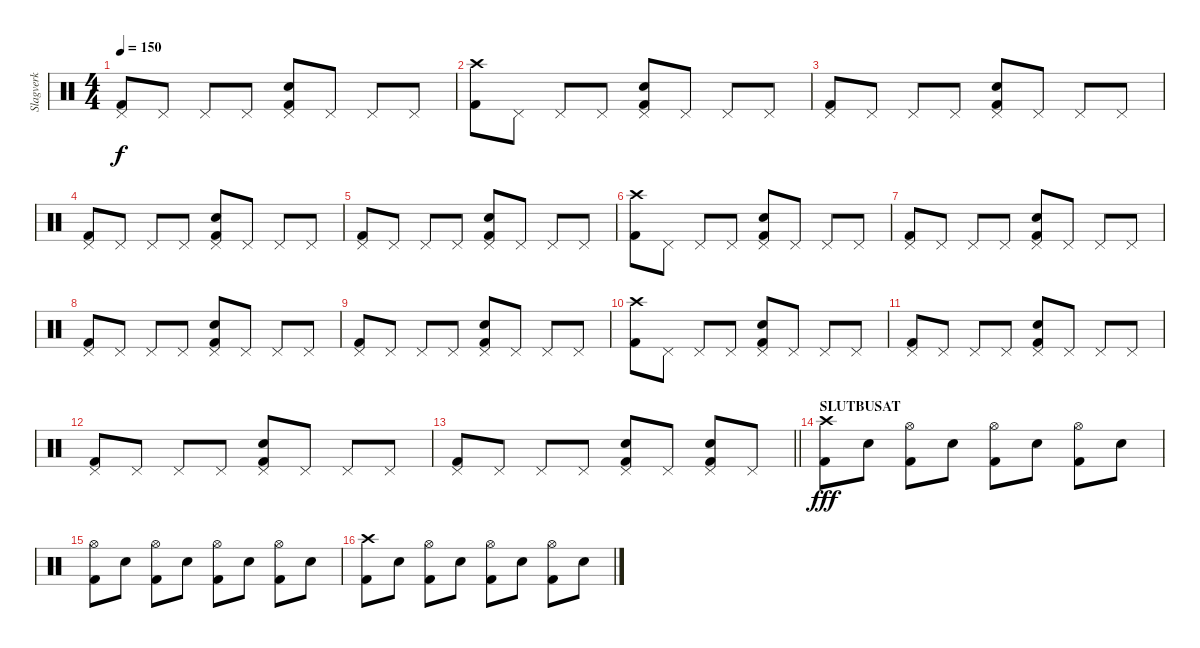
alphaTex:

\track ("Slagverk" "Slagverk") {instrument percussion}
\staff {score}
\articulation defaults
\ts (4 4)
\tempo 150
\clef neutral
\ks c
("Pedal Hi-Hat (hit)" "Kick (hit) 2").8{dy f} "Pedal Hi-Hat (hit)".8 "Pedal Hi-Hat (hit)".8 "Pedal Hi-Hat (hit)".8 ("Pedal Hi-Hat (hit)" "Electric Snare (hit)" "Kick (hit) 2").8 "Pedal Hi-Hat (hit)".8 "Pedal Hi-Hat (hit)".8 "Pedal Hi-Hat (hit)".8 |
("Crash high (hit)" "Kick (hit) 2").8 "Pedal Hi-Hat (hit)".8 "Pedal Hi-Hat (hit)".8 "Pedal Hi-Hat (hit)".8 ("Pedal Hi-Hat (hit)" "Electric Snare (hit)" "Kick (hit) 2").8 "Pedal Hi-Hat (hit)".8 "Pedal Hi-Hat (hit)".8 "Pedal Hi-Hat (hit)".8 |
("Pedal Hi-Hat (hit)" "Kick (hit) 2").8 "Pedal Hi-Hat (hit)".8 "Pedal Hi-Hat (hit)".8 "Pedal Hi-Hat (hit)".8 ("Pedal Hi-Hat (hit)" "Electric Snare (hit)" "Kick (hit) 2").8 "Pedal Hi-Hat (hit)".8 "Pedal Hi-Hat (hit)".8 "Pedal Hi-Hat (hit)".8 |
("Pedal Hi-Hat (hit)" "Kick (hit) 2").8 "Pedal Hi-Hat (hit)".8 "Pedal Hi-Hat (hit)".8 "Pedal Hi-Hat (hit)".8 ("Pedal Hi-Hat (hit)" "Electric Snare (hit)" "Kick (hit) 2").8 "Pedal Hi-Hat (hit)".8 "Pedal Hi-Hat (hit)".8 "Pedal Hi-Hat (hit)".8 |
("Pedal Hi-Hat (hit)" "Kick (hit) 2").8 "Pedal Hi-Hat (hit)".8 "Pedal Hi-Hat (hit)".8 "Pedal Hi-Hat (hit)".8 ("Pedal Hi-Hat (hit)" "Electric Snare (hit)" "Kick (hit) 2").8 "Pedal Hi-Hat (hit)".8 "Pedal Hi-Hat (hit)".8 "Pedal Hi-Hat (hit)".8 |
("Crash high (hit)" "Kick (hit) 2").8 "Pedal Hi-Hat (hit)".8 "Pedal Hi-Hat (hit)".8 "Pedal Hi-Hat (hit)".8 ("Pedal Hi-Hat (hit)" "Electric Snare (hit)" "Kick (hit) 2").8 "Pedal Hi-Hat (hit)".8 "Pedal Hi-Hat (hit)".8 "Pedal Hi-Hat (hit)".8 |
("Pedal Hi-Hat (hit)" "Kick (hit) 2").8 "Pedal Hi-Hat (hit)".8 "Pedal Hi-Hat (hit)".8 "Pedal Hi-Hat (hit)".8 ("Pedal Hi-Hat (hit)" "Electric Snare (hit)" "Kick (hit) 2").8 "Pedal Hi-Hat (hit)".8 "Pedal Hi-Hat (hit)".8 "Pedal Hi-Hat (hit)".8 |
("Pedal Hi-Hat (hit)" "Kick (hit) 2").8 "Pedal Hi-Hat (hit)".8 "Pedal Hi-Hat (hit)".8 "Pedal Hi-Hat (hit)".8 ("Pedal Hi-Hat (hit)" "Electric Snare (hit)" "Kick (hit) 2").8 "Pedal Hi-Hat (hit)".8 "Pedal Hi-Hat (hit)".8 "Pedal Hi-Hat (hit)".8 |
("Pedal Hi-Hat (hit)" "Kick (hit) 2").8 "Pedal Hi-Hat (hit)".8 "Pedal Hi-Hat (hit)".8 "Pedal Hi-Hat (hit)".8 ("Pedal Hi-Hat (hit)" "Electric Snare (hit)" "Kick (hit) 2").8 "Pedal Hi-Hat (hit)".8 "Pedal Hi-Hat (hit)".8 "Pedal Hi-Hat (hit)".8 |
("Crash high (hit)" "Kick (hit) 2").8 "Pedal Hi-Hat (hit)".8 "Pedal Hi-Hat (hit)".8 "Pedal Hi-Hat (hit)".8 ("Pedal Hi-Hat (hit)" "Electric Snare (hit)" "Kick (hit) 2").8 "Pedal Hi-Hat (hit)".8 "Pedal Hi-Hat (hit)".8 "Pedal Hi-Hat (hit)".8 |
("Pedal Hi-Hat (hit)" "Kick (hit) 2").8 "Pedal Hi-Hat (hit)".8 "Pedal Hi-Hat (hit)".8 "Pedal Hi-Hat (hit)".8 ("Pedal Hi-Hat (hit)" "Electric Snare (hit)" "Kick (hit) 2").8 "Pedal Hi-Hat (hit)".8 "Pedal Hi-Hat (hit)".8 "Pedal Hi-Hat (hit)".8 |
("Pedal Hi-Hat (hit)" "Kick (hit) 2").8 "Pedal Hi-Hat (hit)".8 "Pedal Hi-Hat (hit)".8 "Pedal Hi-Hat (hit)".8 ("Pedal Hi-Hat (hit)" "Electric Snare (hit)" "Kick (hit) 2").8 "Pedal Hi-Hat (hit)".8 "Pedal Hi-Hat (hit)".8 "Pedal Hi-Hat (hit)".8 |
\barLineRight lightlight
("Pedal Hi-Hat (hit)" "Kick (hit) 2").8 "Pedal Hi-Hat (hit)".8 "Pedal Hi-Hat (hit)".8 "Pedal Hi-Hat (hit)".8 ("Pedal Hi-Hat (hit)" "Electric Snare (hit)" "Kick (hit) 2").8 "Pedal Hi-Hat (hit)".8 ("Pedal Hi-Hat (hit)" "Electric Snare (hit)" "Kick (hit) 2").8 "Pedal Hi-Hat (hit)".8 |
\section ("" "SLUTBUSAT")
("Crash high (hit)" "Kick (hit) 2").8{dy fff} "Electric Snare (hit)".8 ("Hi-Hat (open)" "Kick (hit) 2").8 "Electric Snare (hit)".8 ("Hi-Hat (open)" "Kick (hit) 2").8 "Electric Snare (hit)".8 ("Hi-Hat (open)" "Kick (hit) 2").8 "Electric Snare (hit)".8 |
("Hi-Hat (open)" "Kick (hit) 2").8 "Electric Snare (hit)".8 ("Hi-Hat (open)" "Kick (hit) 2").8 "Electric Snare (hit)".8 ("Hi-Hat (open)" "Kick (hit) 2").8 "Electric Snare (hit)".8 ("Hi-Hat (open)" "Kick (hit) 2").8 "Electric Snare (hit)".8 |
("Crash high (hit)" "Kick (hit) 2").8 "Electric Snare (hit)".8 ("Hi-Hat (open)" "Kick (hit) 2").8 "Electric Snare (hit)".8 ("Hi-Hat (open)" "Kick (hit) 2").8 "Electric Snare (hit)".8 ("Hi-Hat (open)" "Kick (hit) 2").8 "Electric Snare (hit)".8
